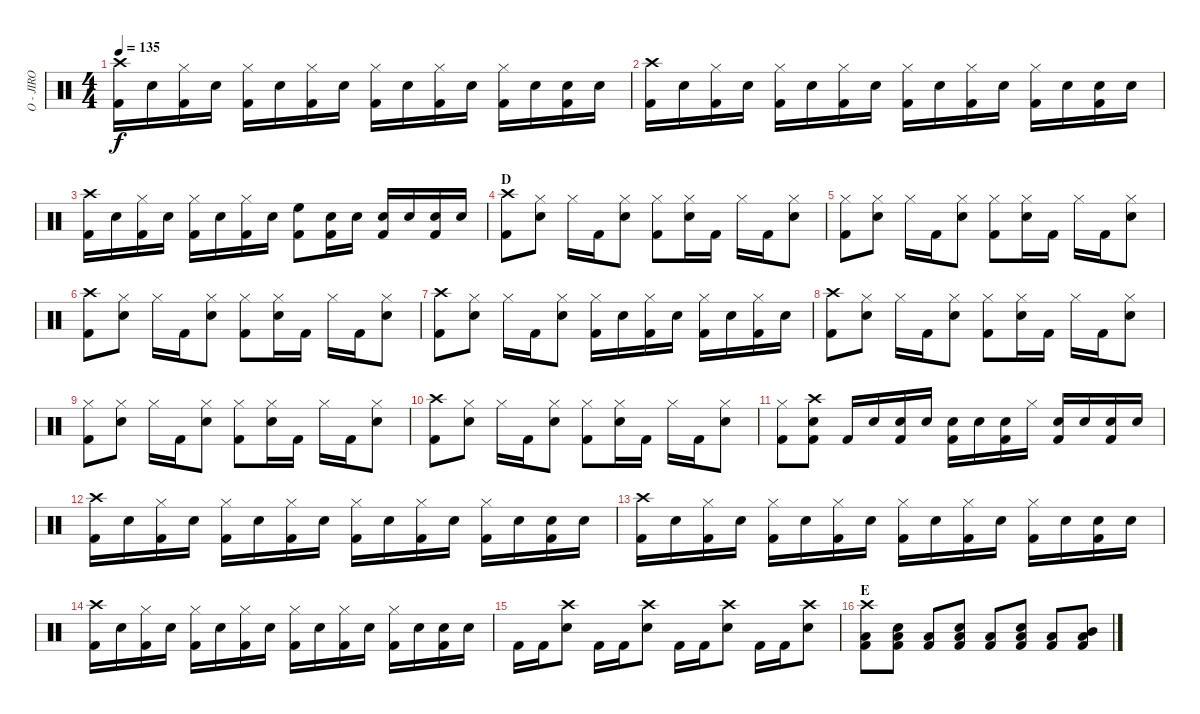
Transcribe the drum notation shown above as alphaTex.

\track ("O - JIRO" "O - JIRO") {instrument percussion}
\staff {score}
\articulation defaults
\ts (4 4)
\tempo 135
\clef neutral
\ks c
("Crash high (hit)" "Kick (hit) 2").16{dy f} "Snare (hit) 2".16 ("Hi-Hat (closed)" "Kick (hit) 2").16 "Snare (hit) 2".16 ("Hi-Hat (closed)" "Kick (hit) 2").16 "Snare (hit) 2".16 ("Hi-Hat (closed)" "Kick (hit) 2").16 "Snare (hit) 2".16 ("Hi-Hat (closed)" "Kick (hit) 2").16 "Snare (hit) 2".16 ("Hi-Hat (closed)" "Kick (hit) 2").16 "Snare (hit) 2".16 ("Hi-Hat (closed)" "Kick (hit) 2").16 "Snare (hit) 2".16 ("Snare (hit) 2" "Kick (hit) 2").16 "Snare (hit) 2".16 |
("Crash high (hit)" "Kick (hit) 2").16 "Snare (hit) 2".16 ("Hi-Hat (closed)" "Kick (hit) 2").16 "Snare (hit) 2".16 ("Hi-Hat (closed)" "Kick (hit) 2").16 "Snare (hit) 2".16 ("Hi-Hat (closed)" "Kick (hit) 2").16 "Snare (hit) 2".16 ("Hi-Hat (closed)" "Kick (hit) 2").16 "Snare (hit) 2".16 ("Hi-Hat (closed)" "Kick (hit) 2").16 "Snare (hit) 2".16 ("Hi-Hat (closed)" "Kick (hit) 2").16 "Snare (hit) 2".16 ("Snare (hit) 2" "Kick (hit) 2").16 "Snare (hit) 2".16 |
("Crash high (hit)" "Kick (hit) 2").16 "Snare (hit) 2".16 ("Hi-Hat (closed)" "Kick (hit) 2").16 "Snare (hit) 2".16 ("Hi-Hat (closed)" "Kick (hit) 2").16 "Snare (hit) 2".16 ("Hi-Hat (closed)" "Kick (hit) 2").16 "Snare (hit) 2".16 ("High Floor Tom (hit)" "Kick (hit) 2").8 ("Snare (hit) 2" "Kick (hit) 2").16 "Snare (hit) 2".16 ("Snare (hit) 2" "Kick (hit) 2").16 "Snare (hit) 2".16 ("Snare (hit) 2" "Kick (hit) 2").16 "Snare (hit) 2".16 |
\section ("" "D")
("Crash high (hit)" "Kick (hit) 2").8 ("Hi-Hat (closed)" "Snare (hit) 2").8 "Hi-Hat (closed)".16 "Kick (hit) 2".16 ("Hi-Hat (closed)" "Snare (hit) 2").8 ("Hi-Hat (closed)" "Kick (hit) 2").8 ("Hi-Hat (closed)" "Snare (hit) 2").16 "Kick (hit) 2".16 "Hi-Hat (closed)".16 "Kick (hit) 2".16 ("Hi-Hat (closed)" "Snare (hit) 2").8 |
("Hi-Hat (closed)" "Kick (hit) 2").8 ("Hi-Hat (closed)" "Snare (hit) 2").8 "Hi-Hat (closed)".16 "Kick (hit) 2".16 ("Hi-Hat (closed)" "Snare (hit) 2").8 ("Hi-Hat (closed)" "Kick (hit) 2").8 ("Hi-Hat (closed)" "Snare (hit) 2").16 "Kick (hit) 2".16 "Hi-Hat (closed)".16 "Kick (hit) 2".16 ("Hi-Hat (closed)" "Snare (hit) 2").8 |
("Crash high (hit)" "Kick (hit) 2").8 ("Hi-Hat (closed)" "Snare (hit) 2").8 "Hi-Hat (closed)".16 "Kick (hit) 2".16 ("Hi-Hat (closed)" "Snare (hit) 2").8 ("Hi-Hat (closed)" "Kick (hit) 2").8 ("Hi-Hat (closed)" "Snare (hit) 2").16 "Kick (hit) 2".16 "Hi-Hat (closed)".16 "Kick (hit) 2".16 ("Hi-Hat (closed)" "Snare (hit) 2").8 |
("Crash high (hit)" "Kick (hit) 2").8 ("Hi-Hat (closed)" "Snare (hit) 2").8 "Hi-Hat (closed)".16 "Kick (hit) 2".16 ("Hi-Hat (closed)" "Snare (hit) 2").8 ("Hi-Hat (closed)" "Kick (hit) 2").16 "Snare (hit) 2".16 ("Hi-Hat (closed)" "Kick (hit) 2").16 "Snare (hit) 2".16 ("Hi-Hat (closed)" "Kick (hit) 2").16 "Snare (hit) 2".16 ("Hi-Hat (closed)" "Kick (hit) 2").16 "Snare (hit) 2".16 |
("Crash high (hit)" "Kick (hit) 2").8 ("Hi-Hat (closed)" "Snare (hit) 2").8 "Hi-Hat (closed)".16 "Kick (hit) 2".16 ("Hi-Hat (closed)" "Snare (hit) 2").8 ("Hi-Hat (closed)" "Kick (hit) 2").8 ("Hi-Hat (closed)" "Snare (hit) 2").16 "Kick (hit) 2".16 "Hi-Hat (closed)".16 "Kick (hit) 2".16 ("Hi-Hat (closed)" "Snare (hit) 2").8 |
("Hi-Hat (closed)" "Kick (hit) 2").8 ("Hi-Hat (closed)" "Snare (hit) 2").8 "Hi-Hat (closed)".16 "Kick (hit) 2".16 ("Hi-Hat (closed)" "Snare (hit) 2").8 ("Hi-Hat (closed)" "Kick (hit) 2").8 ("Hi-Hat (closed)" "Snare (hit) 2").16 "Kick (hit) 2".16 "Hi-Hat (closed)".16 "Kick (hit) 2".16 ("Hi-Hat (closed)" "Snare (hit) 2").8 |
("Crash high (hit)" "Kick (hit) 2").8 ("Hi-Hat (closed)" "Snare (hit) 2").8 "Hi-Hat (closed)".16 "Kick (hit) 2".16 ("Hi-Hat (closed)" "Snare (hit) 2").8 ("Hi-Hat (closed)" "Kick (hit) 2").8 ("Hi-Hat (closed)" "Snare (hit) 2").16 "Kick (hit) 2".16 "Hi-Hat (closed)".16 "Kick (hit) 2".16 ("Hi-Hat (closed)" "Snare (hit) 2").8 |
("Hi-Hat (closed)" "Kick (hit) 2").8 ("Crash high (hit)" "Kick (hit) 2" "Snare (hit) 2").8 "Kick (hit) 2".16 "Snare (hit) 2".16 ("Snare (hit) 2" "Kick (hit) 2").16 "Snare (hit) 2".16 ("Snare (hit) 2" "Kick (hit) 2").16 "Snare (hit) 2".16 ("Snare (hit) 2" "Kick (hit) 2").16 "Hi-Hat (closed)".16 ("Snare (hit) 2" "Kick (hit) 2").16 "Snare (hit) 2".16 ("Snare (hit) 2" "Kick (hit) 2").16 "Snare (hit) 2".16 |
("Crash high (hit)" "Kick (hit) 2").16 "Snare (hit) 2".16 ("Hi-Hat (closed)" "Kick (hit) 2").16 "Snare (hit) 2".16 ("Hi-Hat (closed)" "Kick (hit) 2").16 "Snare (hit) 2".16 ("Hi-Hat (closed)" "Kick (hit) 2").16 "Snare (hit) 2".16 ("Hi-Hat (closed)" "Kick (hit) 2").16 "Snare (hit) 2".16 ("Hi-Hat (closed)" "Kick (hit) 2").16 "Snare (hit) 2".16 ("Hi-Hat (closed)" "Kick (hit) 2").16 "Snare (hit) 2".16 ("Snare (hit) 2" "Kick (hit) 2").16 "Snare (hit) 2".16 |
("Crash high (hit)" "Kick (hit) 2").16 "Snare (hit) 2".16 ("Hi-Hat (closed)" "Kick (hit) 2").16 "Snare (hit) 2".16 ("Hi-Hat (closed)" "Kick (hit) 2").16 "Snare (hit) 2".16 ("Hi-Hat (closed)" "Kick (hit) 2").16 "Snare (hit) 2".16 ("Hi-Hat (closed)" "Kick (hit) 2").16 "Snare (hit) 2".16 ("Hi-Hat (closed)" "Kick (hit) 2").16 "Snare (hit) 2".16 ("Hi-Hat (closed)" "Kick (hit) 2").16 "Snare (hit) 2".16 ("Snare (hit) 2" "Kick (hit) 2").16 "Snare (hit) 2".16 |
("Crash high (hit)" "Kick (hit) 2").16 "Snare (hit) 2".16 ("Hi-Hat (closed)" "Kick (hit) 2").16 "Snare (hit) 2".16 ("Hi-Hat (closed)" "Kick (hit) 2").16 "Snare (hit) 2".16 ("Hi-Hat (closed)" "Kick (hit) 2").16 "Snare (hit) 2".16 ("Hi-Hat (closed)" "Kick (hit) 2").16 "Snare (hit) 2".16 ("Hi-Hat (closed)" "Kick (hit) 2").16 "Snare (hit) 2".16 ("Hi-Hat (closed)" "Kick (hit) 2").16 "Snare (hit) 2".16 ("Snare (hit) 2" "Kick (hit) 2").16 "Snare (hit) 2".16 |
"Kick (hit) 2".16 "Kick (hit) 2".16 ("Crash high (hit)" "Snare (hit) 2").8 "Kick (hit) 2".16 "Kick (hit) 2".16 ("Crash high (hit)" "Snare (hit) 2").8 "Kick (hit) 2".16 "Kick (hit) 2".16 ("Crash high (hit)" "Snare (hit) 2").8 "Kick (hit) 2".16 "Kick (hit) 2".16 ("Crash high (hit)" "Snare (hit) 2").8 |
\section ("" "E")
("Crash high (hit)" "Kick (hit) 2" "Low Floor Tom (hit)").8 ("Snare (hit) 2" "Kick (hit) 2" "Low Floor Tom (hit)").8 ("Kick (hit) 2" "Low Floor Tom (hit)").8 ("Snare (hit) 2" "Kick (hit) 2" "Low Floor Tom (hit)").8 ("Kick (hit) 2" "Low Floor Tom (hit)").8 ("Snare (hit) 2" "Kick (hit) 2" "Low Floor Tom (hit)").8 ("Kick (hit) 2" "Low Floor Tom (hit)").8 ("Mid Tom (hit)" "Kick (hit) 2" "Low Floor Tom (hit)").8
